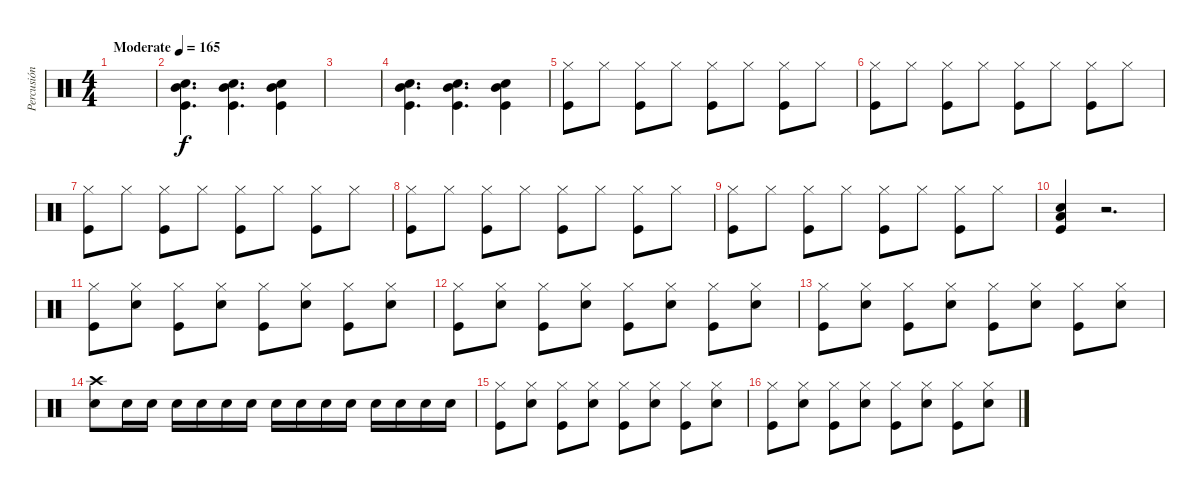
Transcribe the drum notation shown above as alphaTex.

\track ("Percusión" "Percusión") {instrument percussion}
\staff {score}
\articulation defaults
\ts (4 4)
\tempo (165 "Moderate")
\clef neutral
\ks c
|
("Mid Tom (hit)" "Kick (hit)" "Snare (hit) 2").4{d} ("Mid Tom (hit)" "Kick (hit)" "Snare (hit) 2").4{d} ("Mid Tom (hit)" "Kick (hit)" "Snare (hit) 2").4 |
|
("Mid Tom (hit)" "Kick (hit)" "Snare (hit) 2").4{d} ("Mid Tom (hit)" "Kick (hit)" "Snare (hit) 2").4{d} ("Mid Tom (hit)" "Kick (hit)" "Snare (hit) 2").4 |
("Kick (hit)" "Hi-Hat (closed)").8 "Hi-Hat (closed)".8 ("Kick (hit)" "Hi-Hat (closed)").8 "Hi-Hat (closed)".8 ("Kick (hit)" "Hi-Hat (closed)").8 "Hi-Hat (closed)".8 ("Kick (hit)" "Hi-Hat (closed)").8 "Hi-Hat (closed)".8 |
("Kick (hit)" "Hi-Hat (closed)").8 "Hi-Hat (closed)".8 ("Kick (hit)" "Hi-Hat (closed)").8 "Hi-Hat (closed)".8 ("Kick (hit)" "Hi-Hat (closed)").8 "Hi-Hat (closed)".8 ("Kick (hit)" "Hi-Hat (closed)").8 "Hi-Hat (closed)".8 |
("Kick (hit)" "Hi-Hat (closed)").8 "Hi-Hat (closed)".8 ("Kick (hit)" "Hi-Hat (closed)").8 "Hi-Hat (closed)".8 ("Kick (hit)" "Hi-Hat (closed)").8 "Hi-Hat (closed)".8 ("Kick (hit)" "Hi-Hat (closed)").8 "Hi-Hat (closed)".8 |
("Kick (hit)" "Hi-Hat (closed)").8 "Hi-Hat (closed)".8 ("Kick (hit)" "Hi-Hat (closed)").8 "Hi-Hat (closed)".8 ("Kick (hit)" "Hi-Hat (closed)").8 "Hi-Hat (closed)".8 ("Kick (hit)" "Hi-Hat (closed)").8 "Hi-Hat (closed)".8 |
("Kick (hit)" "Hi-Hat (closed)").8 "Hi-Hat (closed)".8 ("Kick (hit)" "Hi-Hat (closed)").8 "Hi-Hat (closed)".8 ("Kick (hit)" "Hi-Hat (closed)").8 "Hi-Hat (closed)".8 ("Kick (hit)" "Hi-Hat (closed)").8 "Hi-Hat (closed)".8 |
("Kick (hit)" "Low Floor Tom (hit)" "Snare (hit) 2").4 r.2{d} |
("Hi-Hat (closed)" "Kick (hit)").8 ("Hi-Hat (closed)" "Snare (hit) 2").8 ("Hi-Hat (closed)" "Kick (hit)").8 ("Hi-Hat (closed)" "Snare (hit) 2").8 ("Hi-Hat (closed)" "Kick (hit)").8 ("Hi-Hat (closed)" "Snare (hit) 2").8 ("Hi-Hat (closed)" "Kick (hit)").8 ("Hi-Hat (closed)" "Snare (hit) 2").8 |
("Hi-Hat (closed)" "Kick (hit)").8 ("Hi-Hat (closed)" "Snare (hit) 2").8 ("Hi-Hat (closed)" "Kick (hit)").8 ("Hi-Hat (closed)" "Snare (hit) 2").8 ("Hi-Hat (closed)" "Kick (hit)").8 ("Hi-Hat (closed)" "Snare (hit) 2").8 ("Hi-Hat (closed)" "Kick (hit)").8 ("Hi-Hat (closed)" "Snare (hit) 2").8 |
("Hi-Hat (closed)" "Kick (hit)").8 ("Hi-Hat (closed)" "Snare (hit) 2").8 ("Hi-Hat (closed)" "Kick (hit)").8 ("Hi-Hat (closed)" "Snare (hit) 2").8 ("Hi-Hat (closed)" "Kick (hit)").8 ("Hi-Hat (closed)" "Snare (hit) 2").8 ("Hi-Hat (closed)" "Kick (hit)").8 ("Hi-Hat (closed)" "Snare (hit) 2").8 |
("Crash high (hit)" "Snare (hit) 2").8 "Snare (hit) 2".16 "Snare (hit) 2".16 "Snare (hit) 2".16 "Snare (hit) 2".16 "Snare (hit) 2".16 "Snare (hit) 2".16 "Snare (hit) 2".16 "Snare (hit) 2".16 "Snare (hit) 2".16 "Snare (hit) 2".16 "Snare (hit) 2".16 "Snare (hit) 2".16 "Snare (hit) 2".16 "Snare (hit) 2".16 |
("Hi-Hat (closed)" "Kick (hit)").8 ("Hi-Hat (closed)" "Snare (hit) 2").8 ("Hi-Hat (closed)" "Kick (hit)").8 ("Hi-Hat (closed)" "Snare (hit) 2").8 ("Hi-Hat (closed)" "Kick (hit)").8 ("Hi-Hat (closed)" "Snare (hit) 2").8 ("Hi-Hat (closed)" "Kick (hit)").8 ("Hi-Hat (closed)" "Snare (hit) 2").8 |
("Hi-Hat (closed)" "Kick (hit)").8 ("Hi-Hat (closed)" "Snare (hit) 2").8 ("Hi-Hat (closed)" "Kick (hit)").8 ("Hi-Hat (closed)" "Snare (hit) 2").8 ("Hi-Hat (closed)" "Kick (hit)").8 ("Hi-Hat (closed)" "Snare (hit) 2").8 ("Hi-Hat (closed)" "Kick (hit)").8 ("Hi-Hat (closed)" "Snare (hit) 2").8
